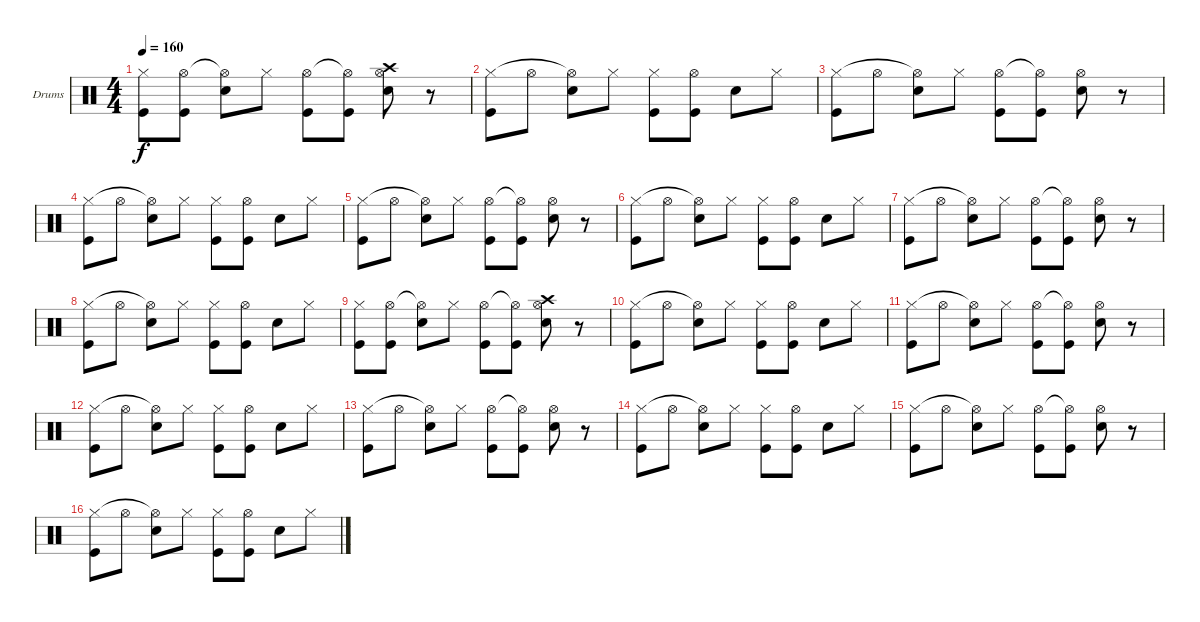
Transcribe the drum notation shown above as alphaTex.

\bracketExtendMode groupsimilarinstruments
\firstSystemTrackNameOrientation horizontal
\otherSystemsTrackNameOrientation horizontal
\track ("Drumkit" "Drums") {instrument percussion}
\staff {score}
\articulation defaults
\ts (4 4)
\tempo 160
\clef neutral
\ks c
("Kick (hit)" "Hi-Hat (closed)").8{dy f} ("Kick (hit)" "Hi-Hat (open)").8 ("Snare (hit) 2" "Hi-Hat (open)"{t}).8 "Hi-Hat (closed)".8 ("Kick (hit)" "Hi-Hat (open)").8 ("Kick (hit)" "Hi-Hat (open)"{t}).8 ("Snare (hit) 2" "Hi-Hat (open)" "Crash high (hit)").8 r.8 |
("Kick (hit)" "Hi-Hat (closed)").8 "Hi-Hat (open)".8 ("Snare (hit) 2" "Hi-Hat (open)"{t}).8 "Hi-Hat (closed)".8 ("Kick (hit)" "Hi-Hat (closed)").8 ("Kick (hit)" "Hi-Hat (open)").8 "Snare (hit) 2".8 "Hi-Hat (closed)".8 |
("Kick (hit)" "Hi-Hat (closed)").8 "Hi-Hat (open)".8 ("Snare (hit) 2" "Hi-Hat (open)"{t}).8 "Hi-Hat (closed)".8 ("Kick (hit)" "Hi-Hat (open)").8 ("Kick (hit)" "Hi-Hat (open)"{t}).8 ("Snare (hit) 2" "Hi-Hat (open)").8 r.8 |
("Kick (hit)" "Hi-Hat (closed)").8 "Hi-Hat (open)".8 ("Snare (hit) 2" "Hi-Hat (open)"{t}).8 "Hi-Hat (closed)".8 ("Kick (hit)" "Hi-Hat (closed)").8 ("Kick (hit)" "Hi-Hat (open)").8 "Snare (hit) 2".8 "Hi-Hat (closed)".8 |
("Kick (hit)" "Hi-Hat (closed)").8 "Hi-Hat (open)".8 ("Snare (hit) 2" "Hi-Hat (open)"{t}).8 "Hi-Hat (closed)".8 ("Kick (hit)" "Hi-Hat (open)").8 ("Kick (hit)" "Hi-Hat (open)"{t}).8 ("Snare (hit) 2" "Hi-Hat (open)").8 r.8 |
("Kick (hit)" "Hi-Hat (closed)").8 "Hi-Hat (open)".8 ("Snare (hit) 2" "Hi-Hat (open)"{t}).8 "Hi-Hat (closed)".8 ("Kick (hit)" "Hi-Hat (closed)").8 ("Kick (hit)" "Hi-Hat (open)").8 "Snare (hit) 2".8 "Hi-Hat (closed)".8 |
("Kick (hit)" "Hi-Hat (closed)").8 "Hi-Hat (open)".8 ("Snare (hit) 2" "Hi-Hat (open)"{t}).8 "Hi-Hat (closed)".8 ("Kick (hit)" "Hi-Hat (open)").8 ("Kick (hit)" "Hi-Hat (open)"{t}).8 ("Snare (hit) 2" "Hi-Hat (open)").8 r.8 |
("Kick (hit)" "Hi-Hat (closed)").8 "Hi-Hat (open)".8 ("Snare (hit) 2" "Hi-Hat (open)"{t}).8 "Hi-Hat (closed)".8 ("Kick (hit)" "Hi-Hat (closed)").8 ("Kick (hit)" "Hi-Hat (open)").8 "Snare (hit) 2".8 "Hi-Hat (closed)".8 |
("Kick (hit)" "Hi-Hat (closed)").8 ("Kick (hit)" "Hi-Hat (open)").8 ("Snare (hit) 2" "Hi-Hat (open)"{t}).8 "Hi-Hat (closed)".8 ("Kick (hit)" "Hi-Hat (open)").8 ("Kick (hit)" "Hi-Hat (open)"{t}).8 ("Snare (hit) 2" "Hi-Hat (open)" "Crash high (hit)").8 r.8 |
("Kick (hit)" "Hi-Hat (closed)").8 "Hi-Hat (open)".8 ("Snare (hit) 2" "Hi-Hat (open)"{t}).8 "Hi-Hat (closed)".8 ("Kick (hit)" "Hi-Hat (closed)").8 ("Kick (hit)" "Hi-Hat (open)").8 "Snare (hit) 2".8 "Hi-Hat (closed)".8 |
("Kick (hit)" "Hi-Hat (closed)").8 "Hi-Hat (open)".8 ("Snare (hit) 2" "Hi-Hat (open)"{t}).8 "Hi-Hat (closed)".8 ("Kick (hit)" "Hi-Hat (open)").8 ("Kick (hit)" "Hi-Hat (open)"{t}).8 ("Snare (hit) 2" "Hi-Hat (open)").8 r.8 |
("Kick (hit)" "Hi-Hat (closed)").8 "Hi-Hat (open)".8 ("Snare (hit) 2" "Hi-Hat (open)"{t}).8 "Hi-Hat (closed)".8 ("Kick (hit)" "Hi-Hat (closed)").8 ("Kick (hit)" "Hi-Hat (open)").8 "Snare (hit) 2".8 "Hi-Hat (closed)".8 |
("Kick (hit)" "Hi-Hat (closed)").8 "Hi-Hat (open)".8 ("Snare (hit) 2" "Hi-Hat (open)"{t}).8 "Hi-Hat (closed)".8 ("Kick (hit)" "Hi-Hat (open)").8 ("Kick (hit)" "Hi-Hat (open)"{t}).8 ("Snare (hit) 2" "Hi-Hat (open)").8 r.8 |
("Kick (hit)" "Hi-Hat (closed)").8 "Hi-Hat (open)".8 ("Snare (hit) 2" "Hi-Hat (open)"{t}).8 "Hi-Hat (closed)".8 ("Kick (hit)" "Hi-Hat (closed)").8 ("Kick (hit)" "Hi-Hat (open)").8 "Snare (hit) 2".8 "Hi-Hat (closed)".8 |
("Kick (hit)" "Hi-Hat (closed)").8 "Hi-Hat (open)".8 ("Snare (hit) 2" "Hi-Hat (open)"{t}).8 "Hi-Hat (closed)".8 ("Kick (hit)" "Hi-Hat (open)").8 ("Kick (hit)" "Hi-Hat (open)"{t}).8 ("Snare (hit) 2" "Hi-Hat (open)").8 r.8 |
("Kick (hit)" "Hi-Hat (closed)").8 "Hi-Hat (open)".8 ("Snare (hit) 2" "Hi-Hat (open)"{t}).8 "Hi-Hat (closed)".8 ("Kick (hit)" "Hi-Hat (closed)").8 ("Kick (hit)" "Hi-Hat (open)").8 "Snare (hit) 2".8 "Hi-Hat (closed)".8
